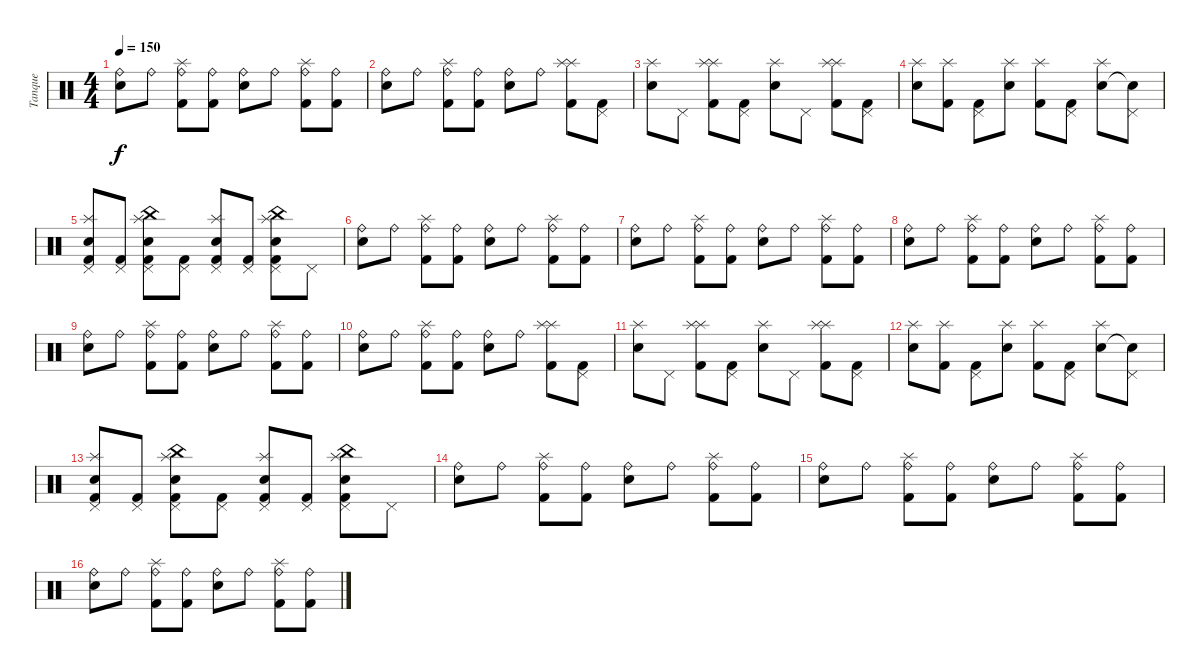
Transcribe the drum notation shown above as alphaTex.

\track ("Tanque" "Tanque") {instrument percussion}
\staff {score}
\articulation defaults
\ts (4 4)
\tempo 150
\clef neutral
\ks c
("Ride (bell)" "Snare (hit) 2").8{dy f} "Ride (bell)".8 ("Ride (bell)" "Kick (hit) 2" "Splash (hit)").8 ("Ride (bell)" "Kick (hit) 2").8 ("Ride (bell)" "Snare (hit) 2").8 "Ride (bell)".8 ("Ride (bell)" "Kick (hit) 2" "Splash (hit)").8 ("Ride (bell)" "Kick (hit) 2").8 |
("Ride (bell)" "Snare (hit) 2").8 "Ride (bell)".8 ("Ride (bell)" "Kick (hit) 2" "Splash (hit)").8 ("Ride (bell)" "Kick (hit) 2").8 ("Ride (bell)" "Snare (hit) 2").8 "Ride (bell)".8 ("Splash (hit)" "Kick (hit) 2" "Splash (hit)").8 ("Pedal Hi-Hat (hit)" "Kick (hit) 2").8 |
("Splash (hit)" "Snare (hit) 2").8 "Pedal Hi-Hat (hit)".8 ("Splash (hit)" "Kick (hit) 2" "Splash (hit)").8 ("Pedal Hi-Hat (hit)" "Kick (hit) 2").8 ("Splash (hit)" "Snare (hit) 2").8 "Pedal Hi-Hat (hit)".8 ("Splash (hit)" "Kick (hit) 2" "Splash (hit)").8 ("Pedal Hi-Hat (hit)" "Kick (hit) 2").8 |
("Splash (hit)" "Snare (hit) 2").8 ("Splash (hit)" "Kick (hit) 2").8 ("Pedal Hi-Hat (hit)" "Kick (hit) 2").8 ("Splash (hit)" "Snare (hit) 2").8 ("Splash (hit)" "Kick (hit) 2").8 ("Pedal Hi-Hat (hit)" "Kick (hit) 2").8 ("Splash (hit)" "Snare (hit) 2").8 ("Pedal Hi-Hat (hit)" "Snare (hit) 2"{t}).8 |
("Pedal Hi-Hat (hit)" "Kick (hit) 2" "Snare (hit) 2" "Splash (hit)").8 ("Pedal Hi-Hat (hit)" "Kick (hit) 2").8 ("Pedal Hi-Hat (hit)" "Kick (hit) 2" "Snare (hit) 2" "Splash (hit)" "China (hit)").8 ("Pedal Hi-Hat (hit)" "Kick (hit) 2").8 ("Pedal Hi-Hat (hit)" "Kick (hit) 2" "Snare (hit) 2" "Splash (hit)").8 ("Pedal Hi-Hat (hit)" "Kick (hit) 2").8 ("Pedal Hi-Hat (hit)" "Kick (hit) 2" "Snare (hit) 2" "Splash (hit)" "China (hit)").8 "Pedal Hi-Hat (hit)".8 |
("Ride (bell)" "Snare (hit) 2").8 "Ride (bell)".8 ("Ride (bell)" "Kick (hit) 2" "Splash (hit)").8 ("Ride (bell)" "Kick (hit) 2").8 ("Ride (bell)" "Snare (hit) 2").8 "Ride (bell)".8 ("Ride (bell)" "Kick (hit) 2" "Splash (hit)").8 ("Ride (bell)" "Kick (hit) 2").8 |
("Ride (bell)" "Snare (hit) 2").8 "Ride (bell)".8 ("Ride (bell)" "Kick (hit) 2" "Splash (hit)").8 ("Ride (bell)" "Kick (hit) 2").8 ("Ride (bell)" "Snare (hit) 2").8 "Ride (bell)".8 ("Ride (bell)" "Kick (hit) 2" "Splash (hit)").8 ("Ride (bell)" "Kick (hit) 2").8 |
("Ride (bell)" "Snare (hit) 2").8 "Ride (bell)".8 ("Ride (bell)" "Kick (hit) 2" "Splash (hit)").8 ("Ride (bell)" "Kick (hit) 2").8 ("Ride (bell)" "Snare (hit) 2").8 "Ride (bell)".8 ("Ride (bell)" "Kick (hit) 2" "Splash (hit)").8 ("Ride (bell)" "Kick (hit) 2").8 |
("Ride (bell)" "Snare (hit) 2").8 "Ride (bell)".8 ("Ride (bell)" "Kick (hit) 2" "Splash (hit)").8 ("Ride (bell)" "Kick (hit) 2").8 ("Ride (bell)" "Snare (hit) 2").8 "Ride (bell)".8 ("Ride (bell)" "Kick (hit) 2" "Splash (hit)").8 ("Ride (bell)" "Kick (hit) 2").8 |
("Ride (bell)" "Snare (hit) 2").8 "Ride (bell)".8 ("Ride (bell)" "Kick (hit) 2" "Splash (hit)").8 ("Ride (bell)" "Kick (hit) 2").8 ("Ride (bell)" "Snare (hit) 2").8 "Ride (bell)".8 ("Splash (hit)" "Kick (hit) 2" "Splash (hit)").8 ("Pedal Hi-Hat (hit)" "Kick (hit) 2").8 |
("Splash (hit)" "Snare (hit) 2").8 "Pedal Hi-Hat (hit)".8 ("Splash (hit)" "Kick (hit) 2" "Splash (hit)").8 ("Pedal Hi-Hat (hit)" "Kick (hit) 2").8 ("Splash (hit)" "Snare (hit) 2").8 "Pedal Hi-Hat (hit)".8 ("Splash (hit)" "Kick (hit) 2" "Splash (hit)").8 ("Pedal Hi-Hat (hit)" "Kick (hit) 2").8 |
("Splash (hit)" "Snare (hit) 2").8 ("Splash (hit)" "Kick (hit) 2").8 ("Pedal Hi-Hat (hit)" "Kick (hit) 2").8 ("Splash (hit)" "Snare (hit) 2").8 ("Splash (hit)" "Kick (hit) 2").8 ("Pedal Hi-Hat (hit)" "Kick (hit) 2").8 ("Splash (hit)" "Snare (hit) 2").8 ("Pedal Hi-Hat (hit)" "Snare (hit) 2"{t}).8 |
("Pedal Hi-Hat (hit)" "Kick (hit) 2" "Snare (hit) 2" "Splash (hit)").8 ("Pedal Hi-Hat (hit)" "Kick (hit) 2").8 ("Pedal Hi-Hat (hit)" "Kick (hit) 2" "Snare (hit) 2" "Splash (hit)" "China (hit)").8 ("Pedal Hi-Hat (hit)" "Kick (hit) 2").8 ("Pedal Hi-Hat (hit)" "Kick (hit) 2" "Snare (hit) 2" "Splash (hit)").8 ("Pedal Hi-Hat (hit)" "Kick (hit) 2").8 ("Pedal Hi-Hat (hit)" "Kick (hit) 2" "Snare (hit) 2" "Splash (hit)" "China (hit)").8 "Pedal Hi-Hat (hit)".8 |
("Ride (bell)" "Snare (hit) 2").8 "Ride (bell)".8 ("Ride (bell)" "Kick (hit) 2" "Splash (hit)").8 ("Ride (bell)" "Kick (hit) 2").8 ("Ride (bell)" "Snare (hit) 2").8 "Ride (bell)".8 ("Ride (bell)" "Kick (hit) 2" "Splash (hit)").8 ("Ride (bell)" "Kick (hit) 2").8 |
("Ride (bell)" "Snare (hit) 2").8 "Ride (bell)".8 ("Ride (bell)" "Kick (hit) 2" "Splash (hit)").8 ("Ride (bell)" "Kick (hit) 2").8 ("Ride (bell)" "Snare (hit) 2").8 "Ride (bell)".8 ("Ride (bell)" "Kick (hit) 2" "Splash (hit)").8 ("Ride (bell)" "Kick (hit) 2").8 |
("Ride (bell)" "Snare (hit) 2").8 "Ride (bell)".8 ("Ride (bell)" "Kick (hit) 2" "Splash (hit)").8 ("Ride (bell)" "Kick (hit) 2").8 ("Ride (bell)" "Snare (hit) 2").8 "Ride (bell)".8 ("Ride (bell)" "Kick (hit) 2" "Splash (hit)").8 ("Ride (bell)" "Kick (hit) 2").8
